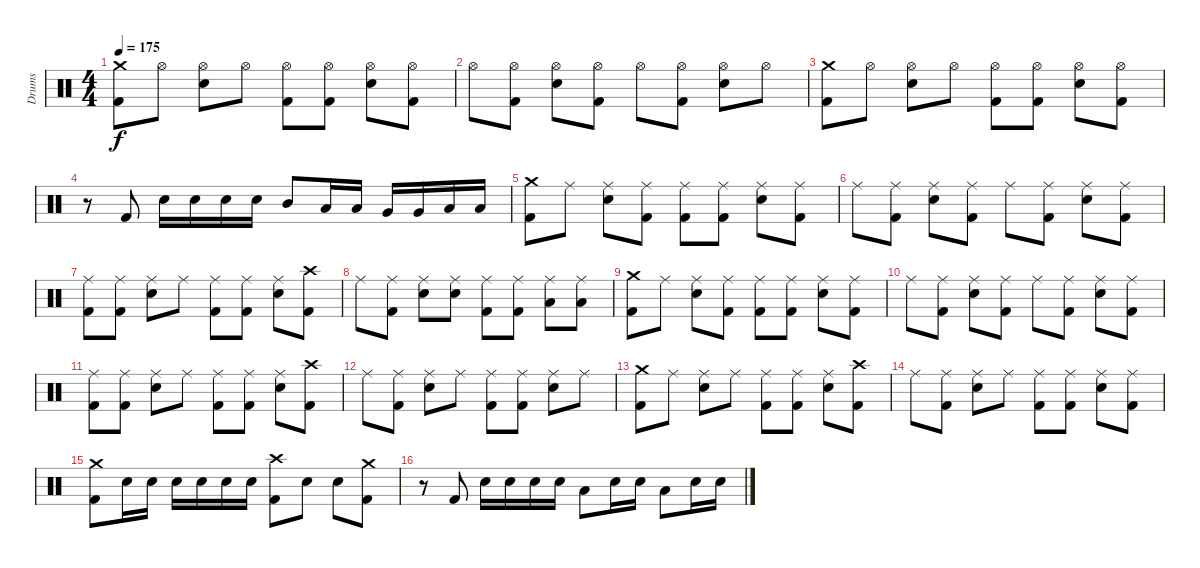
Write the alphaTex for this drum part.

\track ("Drums" "Drums") {instrument percussion}
\staff {score}
\articulation defaults
\ts (4 4)
\tempo 175
\clef neutral
\ks c
("Kick (hit) 2" "Crash medium (hit)").8{dy f} "Hi-Hat (open)".8 ("Snare (hit) 2" "Hi-Hat (open)").8 "Hi-Hat (open)".8 ("Kick (hit) 2" "Hi-Hat (open)").8 ("Kick (hit) 2" "Hi-Hat (open)").8 ("Snare (hit) 2" "Hi-Hat (open)").8 ("Kick (hit) 2" "Hi-Hat (open)").8 |
"Hi-Hat (open)".8 ("Kick (hit) 2" "Hi-Hat (open)").8 ("Snare (hit) 2" "Hi-Hat (open)").8 ("Kick (hit) 2" "Hi-Hat (open)").8 "Hi-Hat (open)".8 ("Kick (hit) 2" "Hi-Hat (open)").8 ("Snare (hit) 2" "Hi-Hat (open)").8 "Hi-Hat (open)".8 |
("Kick (hit) 2" "Crash medium (hit)").8 "Hi-Hat (open)".8 ("Snare (hit) 2" "Hi-Hat (open)").8 "Hi-Hat (open)".8 ("Kick (hit) 2" "Hi-Hat (open)").8 ("Kick (hit) 2" "Hi-Hat (open)").8 ("Snare (hit) 2" "Hi-Hat (open)").8 ("Kick (hit) 2" "Hi-Hat (open)").8 |
r.8 "Kick (hit) 2".8 "Snare (hit) 2".16 "Snare (hit) 2".16 "Snare (hit) 2".16 "Snare (hit) 2".16 "Mid Tom (hit)".8 "Low Tom (hit)".16 "Low Tom (hit)".16 "Very Low Tom (hit)".16 "Very Low Tom (hit)".16 "Low Floor Tom (hit)".16 "Low Floor Tom (hit)".16 |
("Kick (hit) 2" "Crash medium (hit)").8 "Ride (middle)".8 ("Snare (hit) 2" "Ride (middle)").8 ("Kick (hit) 2" "Ride (middle)").8 ("Kick (hit) 2" "Ride (middle)").8 ("Kick (hit) 2" "Ride (middle)").8 ("Snare (hit) 2" "Ride (middle)").8 ("Kick (hit) 2" "Ride (middle)").8 |
"Ride (middle)".8 ("Kick (hit) 2" "Ride (middle)").8 ("Snare (hit) 2" "Ride (middle)").8 ("Kick (hit) 2" "Ride (middle)").8 "Ride (middle)".8 ("Kick (hit) 2" "Ride (middle)").8 ("Snare (hit) 2" "Ride (middle)").8 ("Kick (hit) 2" "Ride (middle)").8 |
("Kick (hit) 2" "Ride (middle)").8 ("Kick (hit) 2" "Ride (middle)").8 ("Snare (hit) 2" "Ride (middle)").8 "Ride (middle)".8 ("Kick (hit) 2" "Ride (middle)").8 ("Kick (hit) 2" "Ride (middle)").8 ("Snare (hit) 2" "Ride (middle)").8 ("Kick (hit) 2" "Crash high (hit)").8 |
"Ride (middle)".8 ("Kick (hit) 2" "Ride (middle)").8 ("Snare (hit) 2" "Ride (middle)").8 ("Snare (hit) 2" "Ride (middle)").8 ("Kick (hit) 2" "Ride (middle)").8 ("Kick (hit) 2" "Ride (middle)").8 ("Low Tom (hit)" "Ride (middle)").8 ("Low Tom (hit)" "Ride (middle)").8 |
("Kick (hit) 2" "Crash medium (hit)").8 "Ride (middle)".8 ("Snare (hit) 2" "Ride (middle)").8 ("Kick (hit) 2" "Ride (middle)").8 ("Kick (hit) 2" "Ride (middle)").8 ("Kick (hit) 2" "Ride (middle)").8 ("Snare (hit) 2" "Ride (middle)").8 ("Kick (hit) 2" "Ride (middle)").8 |
"Ride (middle)".8 ("Kick (hit) 2" "Ride (middle)").8 ("Snare (hit) 2" "Ride (middle)").8 ("Kick (hit) 2" "Ride (middle)").8 "Ride (middle)".8 ("Kick (hit) 2" "Ride (middle)").8 ("Snare (hit) 2" "Ride (middle)").8 ("Kick (hit) 2" "Ride (middle)").8 |
("Kick (hit) 2" "Ride (middle)").8 ("Kick (hit) 2" "Ride (middle)").8 ("Snare (hit) 2" "Ride (middle)").8 "Ride (middle)".8 ("Kick (hit) 2" "Ride (middle)").8 ("Kick (hit) 2" "Ride (middle)").8 ("Snare (hit) 2" "Ride (middle)").8 ("Kick (hit) 2" "Crash high (hit)").8 |
"Ride (middle)".8 ("Kick (hit) 2" "Ride (middle)").8 ("Snare (hit) 2" "Ride (middle)").8 "Ride (middle)".8 ("Kick (hit) 2" "Ride (middle)").8 ("Kick (hit) 2" "Ride (middle)").8 ("Snare (hit) 2" "Ride (middle)").8 "Ride (middle)".8 |
("Kick (hit) 2" "Crash medium (hit)").8 "Ride (middle)".8 ("Snare (hit) 2" "Ride (middle)").8 "Ride (middle)".8 ("Kick (hit) 2" "Ride (middle)").8 ("Kick (hit) 2" "Ride (middle)").8 ("Snare (hit) 2" "Ride (middle)").8 ("Kick (hit) 2" "Crash high (hit)").8 |
"Ride (middle)".8 ("Kick (hit) 2" "Ride (middle)").8 ("Snare (hit) 2" "Ride (middle)").8 "Ride (middle)".8 ("Kick (hit) 2" "Ride (middle)").8 ("Kick (hit) 2" "Ride (middle)").8 ("Snare (hit) 2" "Ride (middle)").8 ("Kick (hit) 2" "Ride (middle)").8 |
("Kick (hit) 2" "Crash medium (hit)").8 "Snare (hit) 2".16 "Snare (hit) 2".16 "Snare (hit) 2".16 "Snare (hit) 2".16 "Snare (hit) 2".16 "Snare (hit) 2".16 ("Kick (hit) 2" "Crash high (hit)").8 "Snare (hit) 2".8 "Snare (hit) 2".8 ("Kick (hit) 2" "Crash medium (hit)").8 |
r.8 "Kick (hit) 2".8 "Snare (hit) 2".16 "Snare (hit) 2".16 "Snare (hit) 2".16 "Snare (hit) 2".16 "Low Tom (hit)".8 "Snare (hit) 2".16 "Snare (hit) 2".16 "Low Tom (hit)".8 "Snare (hit) 2".16 "Snare (hit) 2".16
